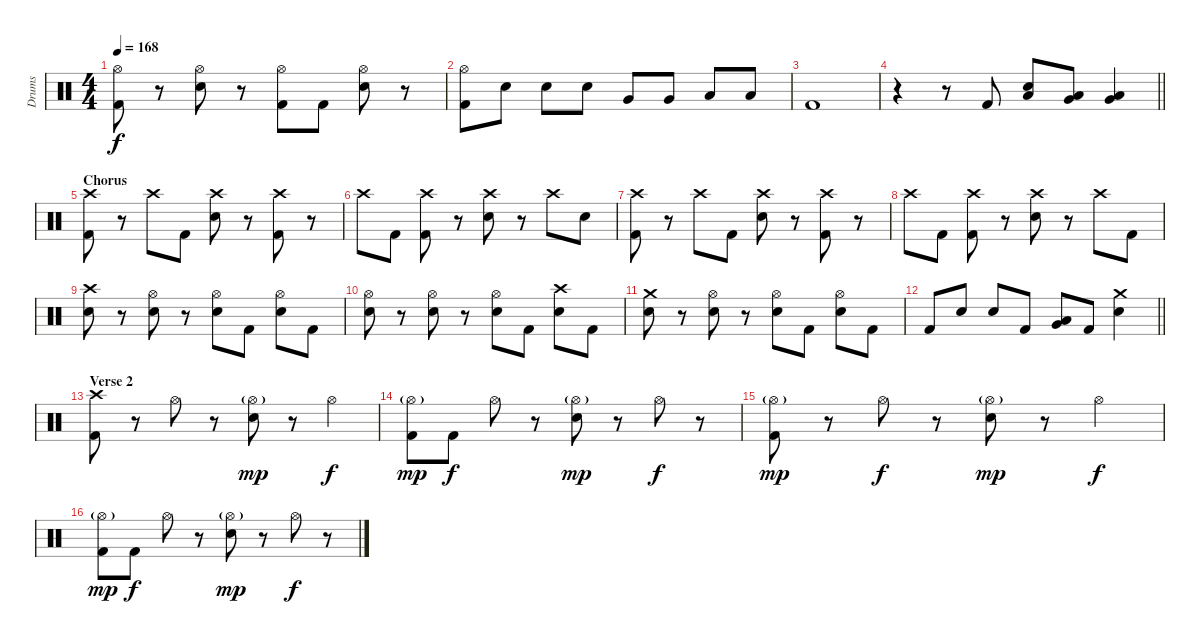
\track ("Drums" "Drums") {instrument percussion}
\staff {score}
\articulation defaults
\ts (4 4)
\tempo 168
\clef neutral
\ks c
("Hi-Hat (open)" "Kick (hit) 2").8{dy f} r.8 ("Hi-Hat (open)" "Snare (hit) 2").8 r.8 ("Hi-Hat (open)" "Kick (hit) 2").8 "Kick (hit) 2".8 ("Hi-Hat (open)" "Snare (hit) 2").8 r.8 |
("Hi-Hat (open)" "Kick (hit) 2").8 "Snare (hit) 2".8 "Snare (hit) 2".8 "Snare (hit) 2".8 "Very Low Tom (hit)".8 "Very Low Tom (hit)".8 "Low Floor Tom (hit)".8 "Low Floor Tom (hit)".8 |
"Kick (hit) 2".1 |
\barLineRight lightlight
r.4 r.8 "Kick (hit) 2".8 ("Low Tom (hit)" "Snare (hit) 2").8 ("Very Low Tom (hit)" "Low Tom (hit)").8 ("Very Low Tom (hit)" "Low Floor Tom (hit)").4 |
\section ("" "Chorus")
("Crash high (hit)" "Kick (hit) 2").8 r.8 "Crash high (hit)".8 "Kick (hit) 2".8 ("Crash high (hit)" "Snare (hit) 2").8 r.8 ("Crash high (hit)" "Kick (hit) 2").8 r.8 |
"Crash high (hit)".8 "Kick (hit) 2".8 ("Crash high (hit)" "Kick (hit) 2").8 r.8 ("Crash high (hit)" "Snare (hit) 2").8 r.8 "Crash high (hit)".8 "Snare (hit) 2".8 |
("Crash high (hit)" "Kick (hit) 2").8 r.8 "Crash high (hit)".8 "Kick (hit) 2".8 ("Crash high (hit)" "Snare (hit) 2").8 r.8 ("Crash high (hit)" "Kick (hit) 2").8 r.8 |
"Crash high (hit)".8 "Kick (hit) 2".8 ("Crash high (hit)" "Kick (hit) 2").8 r.8 ("Crash high (hit)" "Snare (hit) 2").8 r.8 "Crash high (hit)".8 "Kick (hit) 2".8 |
("Crash high (hit)" "Snare (hit) 2").8 r.8 ("Hi-Hat (open)" "Snare (hit) 2").8 r.8 ("Hi-Hat (open)" "Snare (hit) 2").8 "Kick (hit) 2".8 ("Hi-Hat (open)" "Snare (hit) 2").8 "Kick (hit) 2".8 |
("Hi-Hat (open)" "Snare (hit) 2").8 r.8 ("Hi-Hat (open)" "Snare (hit) 2").8 r.8 ("Hi-Hat (open)" "Snare (hit) 2").8 "Kick (hit) 2".8 ("Crash high (hit)" "Snare (hit) 2").8 "Kick (hit) 2".8 |
("Crash medium (hit)" "Snare (hit) 2").8 r.8 ("Hi-Hat (open)" "Snare (hit) 2").8 r.8 ("Hi-Hat (open)" "Snare (hit) 2").8 "Kick (hit) 2".8 ("Hi-Hat (open)" "Snare (hit) 2").8 "Kick (hit) 2".8 |
\barLineRight lightlight "Kick (hit) 2".8 "Snare (hit) 2".8 "Snare (hit) 2".8 "Kick (hit) 2".8
("Very Low Tom (hit)" "Low Tom (hit)").8 "Kick (hit) 2".8 ("Crash medium (hit)" "Snare (hit) 2").4 |
\section ("" "Verse 2")
("Crash high (hit)" "Kick (hit) 2").8 r.8 "Hi-Hat (open)".8 r.8 ("Hi-Hat (open)"{g} "Snare (hit) 2").8{dy mp} r.8 "Hi-Hat (open)".4{dy f} |
("Hi-Hat (open)"{g} "Kick (hit) 2").8{dy mp} "Kick (hit) 2".8{dy f} "Hi-Hat (open)".8 r.8 ("Hi-Hat (open)"{g} "Snare (hit) 2").8{dy mp} r.8 "Hi-Hat (open)".8{dy f} r.8 |
("Hi-Hat (open)"{g} "Kick (hit) 2").8{dy mp} r.8 "Hi-Hat (open)".8{dy f} r.8 ("Hi-Hat (open)"{g} "Snare (hit) 2").8{dy mp} r.8 "Hi-Hat (open)".4{dy f} |
("Hi-Hat (open)"{g} "Kick (hit) 2").8{dy mp} "Kick (hit) 2".8{dy f} "Hi-Hat (open)".8 r.8 ("Hi-Hat (open)"{g} "Snare (hit) 2").8{dy mp} r.8 "Hi-Hat (open)".8{dy f} r.8
